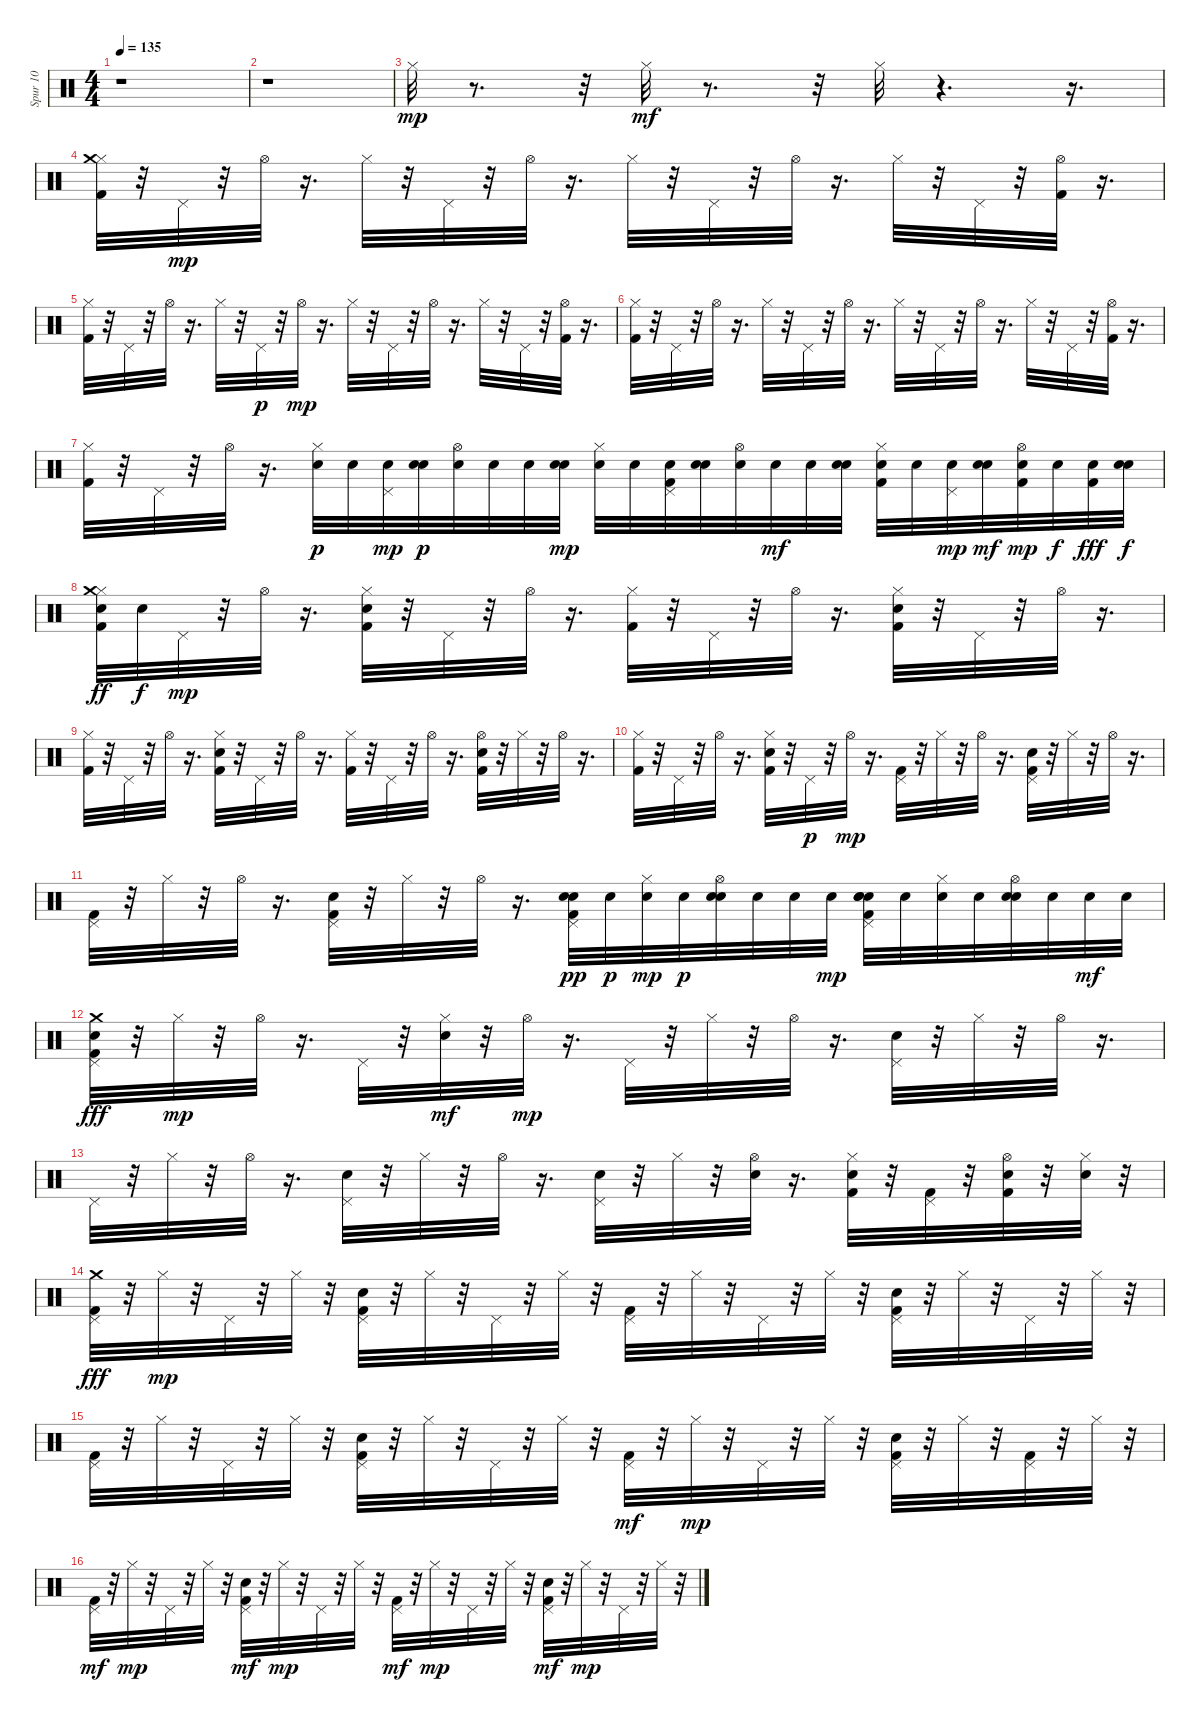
\track ("Spur 10" "Spur 10") {instrument percussion}
\staff {score}
\articulation defaults
\ts (4 4)
\tempo 135
\clef neutral
\ks c
r.1{dy mp} |
r.1 |
"Hi-Hat (closed)".32 r.8{d} r.32 "Hi-Hat (closed)".32{dy mf} r.8{d} r.32 "Hi-Hat (closed)".32 r.4{d} r.16{d} |
("Kick (hit) 2" "Hi-Hat (closed)" "Crash medium (hit)").32 r.32 "Pedal Hi-Hat (hit)".32{dy mp} r.32 "Hi-Hat (open)".32 r.16{d} "Hi-Hat (closed)".32 r.32 "Pedal Hi-Hat (hit)".32 r.32 "Hi-Hat (open)".32 r.16{d} "Hi-Hat (closed)".32 r.32 "Pedal Hi-Hat (hit)".32 r.32 "Hi-Hat (open)".32 r.16{d} "Hi-Hat (closed)".32 r.32 "Pedal Hi-Hat (hit)".32 r.32 ("Kick (hit) 2" "Hi-Hat (open)").32 r.16{d} |
("Kick (hit) 2" "Hi-Hat (closed)").32 r.32 "Pedal Hi-Hat (hit)".32 r.32 "Hi-Hat (open)".32 r.16{d} "Hi-Hat (closed)".32 r.32 "Pedal Hi-Hat (hit)".32{dy p} r.32 "Hi-Hat (open)".32{dy mp} r.16{d} "Hi-Hat (closed)".32 r.32 "Pedal Hi-Hat (hit)".32 r.32 "Hi-Hat (open)".32 r.16{d} "Hi-Hat (closed)".32 r.32 "Pedal Hi-Hat (hit)".32 r.32 ("Kick (hit) 2" "Hi-Hat (open)").32 r.16{d} |
("Kick (hit) 2" "Hi-Hat (closed)").32 r.32 "Pedal Hi-Hat (hit)".32 r.32 "Hi-Hat (open)".32 r.16{d} "Hi-Hat (closed)".32 r.32 "Pedal Hi-Hat (hit)".32 r.32 "Hi-Hat (open)".32 r.16{d} "Hi-Hat (closed)".32 r.32 "Pedal Hi-Hat (hit)".32 r.32 "Hi-Hat (open)".32 r.16{d} "Hi-Hat (closed)".32 r.32 "Pedal Hi-Hat (hit)".32 r.32 ("Kick (hit) 2" "Hi-Hat (open)").32 r.16{d} |
("Kick (hit) 2" "Hi-Hat (closed)").32 r.32 "Pedal Hi-Hat (hit)".32 r.32 "Hi-Hat (open)".32 r.16{d} ("Hi-Hat (closed)" "Snare (hit) 2").32{dy p} "Snare (hit) 2".32 ("Snare (hit) 2" "Pedal Hi-Hat (hit)").32{dy mp} ("Snare (hit) 2" "Snare (hit) 2").32{dy p} ("Hi-Hat (open)" "Snare (hit) 2").32 "Snare (hit) 2".32 "Snare (hit) 2".32 ("Snare (hit) 2" "Snare (hit) 2").32{dy mp} ("Hi-Hat (closed)" "Snare (hit) 2").32 "Snare (hit) 2".32 ("Snare (hit) 2" "Kick (hit) 2" "Pedal Hi-Hat (hit)").32 ("Snare (hit) 2" "Snare (hit) 2").32 ("Hi-Hat (open)" "Snare (hit) 2").32 "Snare (hit) 2".32{dy mf} "Snare (hit) 2".32 ("Snare (hit) 2" "Snare (hit) 2").32 ("Kick (hit) 2" "Hi-Hat (closed)" "Snare (hit) 2").32 "Snare (hit) 2".32 ("Snare (hit) 2" "Pedal Hi-Hat (hit)").32{dy mp} ("Snare (hit) 2" "Snare (hit) 2").32{dy mf} ("Kick (hit) 2" "Hi-Hat (open)" "Snare (hit) 2").32{dy mp} "Snare (hit) 2".32{dy f} ("Snare (hit) 2" "Kick (hit) 2").32{dy fff} ("Snare (hit) 2" "Snare (hit) 2").32{dy f} |
("Kick (hit) 2" "Hi-Hat (closed)" "Crash medium (hit)" "Snare (hit) 2").32{dy ff} "Snare (hit) 2".32{dy f} "Pedal Hi-Hat (hit)".32{dy mp} r.32 "Hi-Hat (open)".32 r.16{d} ("Kick (hit) 2" "Snare (hit) 2" "Hi-Hat (closed)").32 r.32 "Pedal Hi-Hat (hit)".32 r.32 "Hi-Hat (open)".32 r.16{d} ("Kick (hit) 2" "Hi-Hat (closed)").32 r.32 "Pedal Hi-Hat (hit)".32 r.32 "Hi-Hat (open)".32 r.16{d} ("Kick (hit) 2" "Snare (hit) 2" "Hi-Hat (closed)").32 r.32 "Pedal Hi-Hat (hit)".32 r.32 "Hi-Hat (open)".32 r.16{d} |
("Kick (hit) 2" "Hi-Hat (closed)").32 r.32 "Pedal Hi-Hat (hit)".32 r.32 "Hi-Hat (open)".32 r.16{d} ("Kick (hit) 2" "Snare (hit) 2" "Hi-Hat (closed)").32 r.32 "Pedal Hi-Hat (hit)".32 r.32 "Hi-Hat (open)".32 r.16{d} ("Kick (hit) 2" "Hi-Hat (closed)").32 r.32 "Pedal Hi-Hat (hit)".32 r.32 "Hi-Hat (open)".32 r.16{d} ("Kick (hit) 2" "Snare (hit) 2" "Hi-Hat (open)").32 r.32 "Hi-Hat (closed)".32 r.32 "Hi-Hat (open)".32 r.16{d} |
("Kick (hit) 2" "Hi-Hat (closed)").32 r.32 "Pedal Hi-Hat (hit)".32 r.32 "Hi-Hat (open)".32 r.16{d} ("Kick (hit) 2" "Snare (hit) 2" "Hi-Hat (closed)").32 r.32 "Pedal Hi-Hat (hit)".32{dy p} r.32 "Hi-Hat (open)".32{dy mp} r.16{d} ("Kick (hit) 2" "Pedal Hi-Hat (hit)").32 r.32 "Hi-Hat (closed)".32 r.32 "Hi-Hat (open)".32 r.16{d} ("Kick (hit) 2" "Snare (hit) 2" "Pedal Hi-Hat (hit)").32 r.32 "Hi-Hat (closed)".32 r.32 "Hi-Hat (open)".32 r.16{d} |
("Kick (hit) 2" "Pedal Hi-Hat (hit)").32 r.32 "Hi-Hat (closed)".32 r.32 "Hi-Hat (open)".32 r.16{d} ("Kick (hit) 2" "Snare (hit) 2" "Pedal Hi-Hat (hit)").32 r.32 "Hi-Hat (closed)".32 r.32 "Hi-Hat (open)".32 r.16{d} ("Snare (hit) 2" "Kick (hit) 2" "Pedal Hi-Hat (hit)" "Snare (hit) 2").32{dy pp} "Snare (hit) 2".32{dy p} ("Snare (hit) 2" "Hi-Hat (closed)").32{dy mp} "Snare (hit) 2".32{dy p} ("Snare (hit) 2" "Hi-Hat (open)" "Snare (hit) 2").32 "Snare (hit) 2".32 "Snare (hit) 2".32 "Snare (hit) 2".32{dy mp} ("Snare (hit) 2" "Kick (hit) 2" "Snare (hit) 2" "Pedal Hi-Hat (hit)" "Snare (hit) 2").32 "Snare (hit) 2".32 ("Snare (hit) 2" "Hi-Hat (closed)").32 "Snare (hit) 2".32 ("Snare (hit) 2" "Hi-Hat (open)" "Snare (hit) 2").32 "Snare (hit) 2".32 "Snare (hit) 2".32{dy mf} "Snare (hit) 2".32 |
("Snare (hit) 2" "Kick (hit) 2" "Pedal Hi-Hat (hit)" "Crash medium (hit)").32{dy fff} r.32 "Hi-Hat (closed)".32{dy mp} r.32 "Hi-Hat (open)".32 r.16{d} "Pedal Hi-Hat (hit)".32 r.32 ("Snare (hit) 2" "Hi-Hat (closed)").32{dy mf} r.32 "Hi-Hat (open)".32{dy mp} r.16{d} "Pedal Hi-Hat (hit)".32 r.32 "Hi-Hat (closed)".32 r.32 "Hi-Hat (open)".32 r.16{d} ("Snare (hit) 2" "Pedal Hi-Hat (hit)").32 r.32 "Hi-Hat (closed)".32 r.32 "Hi-Hat (open)".32 r.16{d} |
"Pedal Hi-Hat (hit)".32 r.32 "Hi-Hat (closed)".32 r.32 "Hi-Hat (open)".32 r.16{d} ("Snare (hit) 2" "Pedal Hi-Hat (hit)").32 r.32 "Hi-Hat (closed)".32 r.32 "Hi-Hat (open)".32 r.16{d} ("Snare (hit) 2" "Pedal Hi-Hat (hit)").32 r.32 "Hi-Hat (closed)".32 r.32 ("Snare (hit) 2" "Hi-Hat (open)").32 r.16{d} ("Kick (hit) 2" "Snare (hit) 2" "Hi-Hat (closed)").32 r.32 ("Kick (hit) 2" "Pedal Hi-Hat (hit)").32 r.32 ("Kick (hit) 2" "Snare (hit) 2" "Hi-Hat (open)").32 r.32 ("Snare (hit) 2" "Hi-Hat (closed)").32 r.32 |
("Kick (hit) 2" "Pedal Hi-Hat (hit)" "Crash medium (hit)").32{dy fff} r.32 "Hi-Hat (closed)".32{dy mp} r.32 "Pedal Hi-Hat (hit)".32 r.32 "Hi-Hat (closed)".32 r.32 ("Kick (hit) 2" "Snare (hit) 2" "Pedal Hi-Hat (hit)").32 r.32 "Hi-Hat (closed)".32 r.32 "Pedal Hi-Hat (hit)".32 r.32 "Hi-Hat (closed)".32 r.32 ("Kick (hit) 2" "Pedal Hi-Hat (hit)").32 r.32 "Hi-Hat (closed)".32 r.32 "Pedal Hi-Hat (hit)".32 r.32 "Hi-Hat (closed)".32 r.32 ("Kick (hit) 2" "Snare (hit) 2" "Pedal Hi-Hat (hit)").32 r.32 "Hi-Hat (closed)".32 r.32 "Pedal Hi-Hat (hit)".32 r.32 "Hi-Hat (closed)".32 r.32 |
("Kick (hit) 2" "Pedal Hi-Hat (hit)").32 r.32 "Hi-Hat (closed)".32 r.32 "Pedal Hi-Hat (hit)".32 r.32 "Hi-Hat (closed)".32 r.32 ("Kick (hit) 2" "Snare (hit) 2" "Pedal Hi-Hat (hit)").32 r.32 "Hi-Hat (closed)".32 r.32 "Pedal Hi-Hat (hit)".32 r.32 "Hi-Hat (closed)".32 r.32 ("Kick (hit) 2" "Pedal Hi-Hat (hit)").32{dy mf} r.32 "Hi-Hat (closed)".32{dy mp} r.32 "Pedal Hi-Hat (hit)".32 r.32 "Hi-Hat (closed)".32 r.32 ("Kick (hit) 2" "Snare (hit) 2" "Pedal Hi-Hat (hit)").32 r.32 "Hi-Hat (closed)".32 r.32 ("Kick (hit) 2" "Pedal Hi-Hat (hit)").32 r.32 "Hi-Hat (closed)".32 r.32 |
("Kick (hit) 2" "Pedal Hi-Hat (hit)").32{dy mf} r.32 "Hi-Hat (closed)".32{dy mp} r.32 "Pedal Hi-Hat (hit)".32 r.32 "Hi-Hat (closed)".32 r.32 ("Kick (hit) 2" "Snare (hit) 2" "Pedal Hi-Hat (hit)").32{dy mf} r.32 "Hi-Hat (closed)".32{dy mp} r.32 "Pedal Hi-Hat (hit)".32 r.32 "Hi-Hat (closed)".32 r.32 ("Kick (hit) 2" "Pedal Hi-Hat (hit)").32{dy mf} r.32 "Hi-Hat (closed)".32{dy mp} r.32 "Pedal Hi-Hat (hit)".32 r.32 "Hi-Hat (closed)".32 r.32 ("Kick (hit) 2" "Snare (hit) 2" "Pedal Hi-Hat (hit)").32{dy mf} r.32 "Hi-Hat (closed)".32{dy mp} r.32 "Pedal Hi-Hat (hit)".32 r.32 "Hi-Hat (closed)".32 r.32
